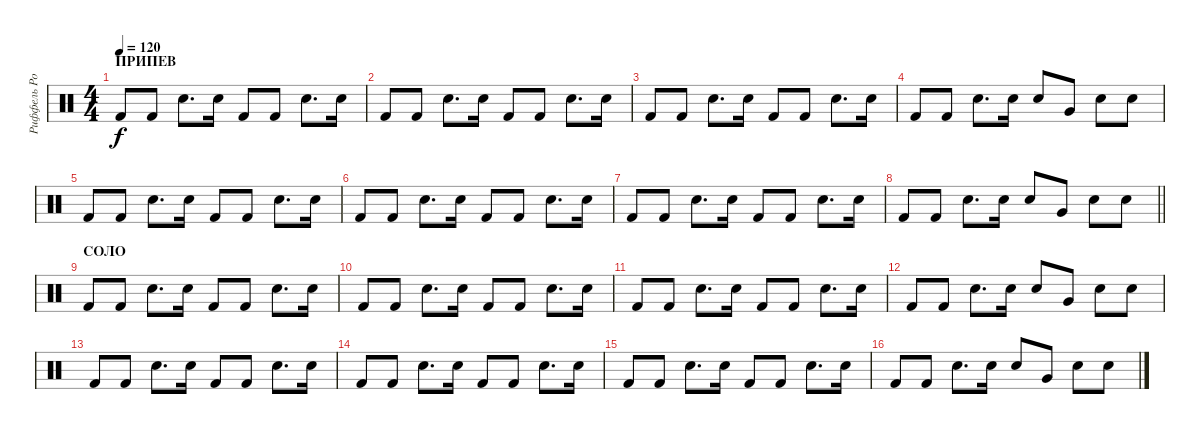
\track ("Риффель Роман (главные)" "Риффель Ро") {instrument percussion}
\staff {score}
\articulation defaults
\ts (4 4)
\section ("" "ПРИПЕВ")
\tempo 120
\clef neutral
\ks c "Kick (hit) 2".8{dy f} "Kick (hit) 2".8 "Electric Snare (hit)".8{d} "Electric Snare (hit)".16 "Kick (hit) 2".8 "Kick (hit) 2".8 "Electric Snare (hit)".8{d} "Electric Snare (hit)".16
|
"Kick (hit) 2".8 "Kick (hit) 2".8 "Electric Snare (hit)".8{d} "Electric Snare (hit)".16 "Kick (hit) 2".8 "Kick (hit) 2".8 "Electric Snare (hit)".8{d} "Electric Snare (hit)".16 |
"Kick (hit) 2".8 "Kick (hit) 2".8 "Electric Snare (hit)".8{d} "Electric Snare (hit)".16 "Kick (hit) 2".8 "Kick (hit) 2".8 "Electric Snare (hit)".8{d} "Electric Snare (hit)".16 |
"Kick (hit) 2".8 "Kick (hit) 2".8 "Electric Snare (hit)".8{d} "Electric Snare (hit)".16 "Electric Snare (hit)".8 "Very Low Tom (hit)".8 "Electric Snare (hit)".8 "Electric Snare (hit)".8 |
"Kick (hit) 2".8 "Kick (hit) 2".8 "Electric Snare (hit)".8{d} "Electric Snare (hit)".16 "Kick (hit) 2".8 "Kick (hit) 2".8 "Electric Snare (hit)".8{d} "Electric Snare (hit)".16 |
"Kick (hit) 2".8 "Kick (hit) 2".8 "Electric Snare (hit)".8{d} "Electric Snare (hit)".16 "Kick (hit) 2".8 "Kick (hit) 2".8 "Electric Snare (hit)".8{d} "Electric Snare (hit)".16 |
"Kick (hit) 2".8 "Kick (hit) 2".8 "Electric Snare (hit)".8{d} "Electric Snare (hit)".16 "Kick (hit) 2".8 "Kick (hit) 2".8 "Electric Snare (hit)".8{d} "Electric Snare (hit)".16 |
\barLineRight lightlight "Kick (hit) 2".8 "Kick (hit) 2".8 "Electric Snare (hit)".8{d} "Electric Snare (hit)".16 "Electric Snare (hit)".8 "Very Low Tom (hit)".8 "Electric Snare (hit)".8 "Electric Snare (hit)".8
|
\section ("" "СОЛО")
"Kick (hit) 2".8 "Kick (hit) 2".8 "Electric Snare (hit)".8{d} "Electric Snare (hit)".16 "Kick (hit) 2".8 "Kick (hit) 2".8 "Electric Snare (hit)".8{d} "Electric Snare (hit)".16 |
"Kick (hit) 2".8 "Kick (hit) 2".8 "Electric Snare (hit)".8{d} "Electric Snare (hit)".16 "Kick (hit) 2".8 "Kick (hit) 2".8 "Electric Snare (hit)".8{d} "Electric Snare (hit)".16 |
"Kick (hit) 2".8 "Kick (hit) 2".8 "Electric Snare (hit)".8{d} "Electric Snare (hit)".16 "Kick (hit) 2".8 "Kick (hit) 2".8 "Electric Snare (hit)".8{d} "Electric Snare (hit)".16 |
"Kick (hit) 2".8 "Kick (hit) 2".8 "Electric Snare (hit)".8{d} "Electric Snare (hit)".16 "Electric Snare (hit)".8 "Very Low Tom (hit)".8 "Electric Snare (hit)".8 "Electric Snare (hit)".8 |
"Kick (hit) 2".8 "Kick (hit) 2".8 "Electric Snare (hit)".8{d} "Electric Snare (hit)".16 "Kick (hit) 2".8 "Kick (hit) 2".8 "Electric Snare (hit)".8{d} "Electric Snare (hit)".16 |
"Kick (hit) 2".8 "Kick (hit) 2".8 "Electric Snare (hit)".8{d} "Electric Snare (hit)".16 "Kick (hit) 2".8 "Kick (hit) 2".8 "Electric Snare (hit)".8{d} "Electric Snare (hit)".16 |
"Kick (hit) 2".8 "Kick (hit) 2".8 "Electric Snare (hit)".8{d} "Electric Snare (hit)".16 "Kick (hit) 2".8 "Kick (hit) 2".8 "Electric Snare (hit)".8{d} "Electric Snare (hit)".16 |
"Kick (hit) 2".8 "Kick (hit) 2".8 "Electric Snare (hit)".8{d} "Electric Snare (hit)".16 "Electric Snare (hit)".8 "Very Low Tom (hit)".8 "Electric Snare (hit)".8 "Electric Snare (hit)".8
